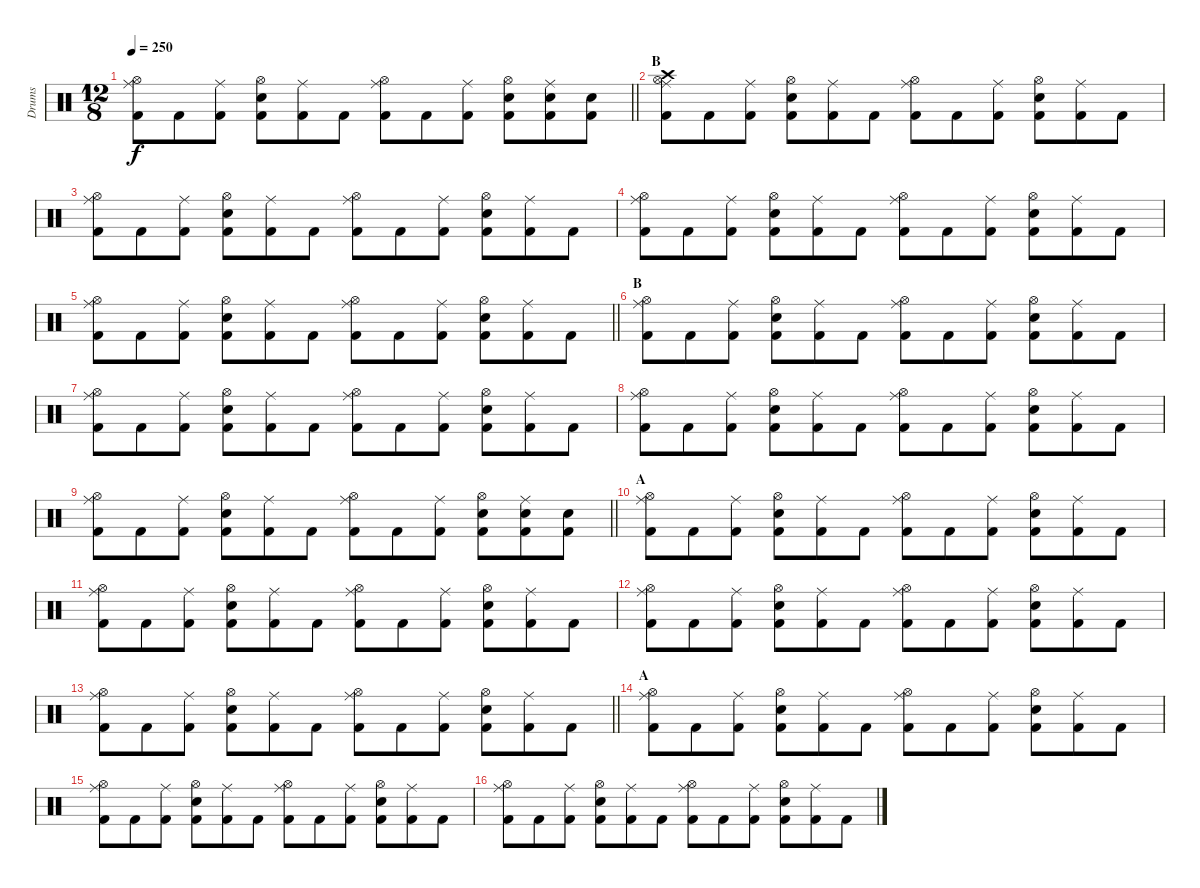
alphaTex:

\track ("Drums" "Drums") {instrument percussion}
\staff {score}
\articulation defaults
\ts (12 8)
\tempo 250
\clef neutral
\barLineRight lightlight
\ks c
("Ride (middle)" "Hi-Hat (open)" "Kick (hit) 2").8{dy f} "Kick (hit) 2".8 ("Ride (middle)" "Kick (hit) 2").8 ("Hi-Hat (open)" "Snare (hit) 2" "Kick (hit) 2").8 ("Ride (middle)" "Kick (hit) 2").8 "Kick (hit) 2".8 ("Ride (middle)" "Hi-Hat (open)" "Kick (hit) 2").8 "Kick (hit) 2".8 ("Ride (middle)" "Kick (hit) 2").8 ("Hi-Hat (open)" "Snare (hit) 2" "Kick (hit) 2").8 ("Ride (middle)" "Snare (hit) 2" "Kick (hit) 2").8 ("Snare (hit) 2" "Kick (hit) 2").8 |
\section ("" "B")
("Crash high (hit)" "Ride (middle)" "Hi-Hat (open)" "Kick (hit) 2").8 "Kick (hit) 2".8 ("Ride (middle)" "Kick (hit) 2").8 ("Hi-Hat (open)" "Snare (hit) 2" "Kick (hit) 2").8 ("Ride (middle)" "Kick (hit) 2").8 "Kick (hit) 2".8 ("Ride (middle)" "Hi-Hat (open)" "Kick (hit) 2").8 "Kick (hit) 2".8 ("Ride (middle)" "Kick (hit) 2").8 ("Hi-Hat (open)" "Snare (hit) 2" "Kick (hit) 2").8 ("Ride (middle)" "Kick (hit) 2").8 "Kick (hit) 2".8 |
("Ride (middle)" "Hi-Hat (open)" "Kick (hit) 2").8 "Kick (hit) 2".8 ("Ride (middle)" "Kick (hit) 2").8 ("Hi-Hat (open)" "Snare (hit) 2" "Kick (hit) 2").8 ("Ride (middle)" "Kick (hit) 2").8 "Kick (hit) 2".8 ("Ride (middle)" "Hi-Hat (open)" "Kick (hit) 2").8 "Kick (hit) 2".8 ("Ride (middle)" "Kick (hit) 2").8 ("Hi-Hat (open)" "Snare (hit) 2" "Kick (hit) 2").8 ("Ride (middle)" "Kick (hit) 2").8 "Kick (hit) 2".8 |
("Ride (middle)" "Hi-Hat (open)" "Kick (hit) 2").8 "Kick (hit) 2".8 ("Ride (middle)" "Kick (hit) 2").8 ("Hi-Hat (open)" "Snare (hit) 2" "Kick (hit) 2").8 ("Ride (middle)" "Kick (hit) 2").8 "Kick (hit) 2".8 ("Ride (middle)" "Hi-Hat (open)" "Kick (hit) 2").8 "Kick (hit) 2".8 ("Ride (middle)" "Kick (hit) 2").8 ("Hi-Hat (open)" "Snare (hit) 2" "Kick (hit) 2").8 ("Ride (middle)" "Kick (hit) 2").8 "Kick (hit) 2".8 |
\barLineRight lightlight
("Ride (middle)" "Hi-Hat (open)" "Kick (hit) 2").8 "Kick (hit) 2".8 ("Ride (middle)" "Kick (hit) 2").8 ("Hi-Hat (open)" "Snare (hit) 2" "Kick (hit) 2").8 ("Ride (middle)" "Kick (hit) 2").8 "Kick (hit) 2".8 ("Ride (middle)" "Hi-Hat (open)" "Kick (hit) 2").8 "Kick (hit) 2".8 ("Ride (middle)" "Kick (hit) 2").8 ("Hi-Hat (open)" "Snare (hit) 2" "Kick (hit) 2").8 ("Ride (middle)" "Kick (hit) 2").8 "Kick (hit) 2".8 |
\section ("" "B")
("Ride (middle)" "Hi-Hat (open)" "Kick (hit) 2").8 "Kick (hit) 2".8 ("Ride (middle)" "Kick (hit) 2").8 ("Hi-Hat (open)" "Snare (hit) 2" "Kick (hit) 2").8 ("Ride (middle)" "Kick (hit) 2").8 "Kick (hit) 2".8 ("Ride (middle)" "Hi-Hat (open)" "Kick (hit) 2").8 "Kick (hit) 2".8 ("Ride (middle)" "Kick (hit) 2").8 ("Hi-Hat (open)" "Snare (hit) 2" "Kick (hit) 2").8 ("Ride (middle)" "Kick (hit) 2").8 "Kick (hit) 2".8 |
("Ride (middle)" "Hi-Hat (open)" "Kick (hit) 2").8 "Kick (hit) 2".8 ("Ride (middle)" "Kick (hit) 2").8 ("Hi-Hat (open)" "Snare (hit) 2" "Kick (hit) 2").8 ("Ride (middle)" "Kick (hit) 2").8 "Kick (hit) 2".8 ("Ride (middle)" "Hi-Hat (open)" "Kick (hit) 2").8 "Kick (hit) 2".8 ("Ride (middle)" "Kick (hit) 2").8 ("Hi-Hat (open)" "Snare (hit) 2" "Kick (hit) 2").8 ("Ride (middle)" "Kick (hit) 2").8 "Kick (hit) 2".8 |
("Ride (middle)" "Hi-Hat (open)" "Kick (hit) 2").8 "Kick (hit) 2".8 ("Ride (middle)" "Kick (hit) 2").8 ("Hi-Hat (open)" "Snare (hit) 2" "Kick (hit) 2").8 ("Ride (middle)" "Kick (hit) 2").8 "Kick (hit) 2".8 ("Ride (middle)" "Hi-Hat (open)" "Kick (hit) 2").8 "Kick (hit) 2".8 ("Ride (middle)" "Kick (hit) 2").8 ("Hi-Hat (open)" "Snare (hit) 2" "Kick (hit) 2").8 ("Ride (middle)" "Kick (hit) 2").8 "Kick (hit) 2".8 |
\barLineRight lightlight
("Ride (middle)" "Hi-Hat (open)" "Kick (hit) 2").8 "Kick (hit) 2".8 ("Ride (middle)" "Kick (hit) 2").8 ("Hi-Hat (open)" "Snare (hit) 2" "Kick (hit) 2").8 ("Ride (middle)" "Kick (hit) 2").8 "Kick (hit) 2".8 ("Ride (middle)" "Hi-Hat (open)" "Kick (hit) 2").8 "Kick (hit) 2".8 ("Ride (middle)" "Kick (hit) 2").8 ("Hi-Hat (open)" "Snare (hit) 2" "Kick (hit) 2").8 ("Ride (middle)" "Snare (hit) 2" "Kick (hit) 2").8 ("Snare (hit) 2" "Kick (hit) 2").8 |
\section ("" "A")
("Ride (middle)" "Hi-Hat (open)" "Kick (hit) 2").8 "Kick (hit) 2".8 ("Ride (middle)" "Kick (hit) 2").8 ("Hi-Hat (open)" "Snare (hit) 2" "Kick (hit) 2").8 ("Ride (middle)" "Kick (hit) 2").8 "Kick (hit) 2".8 ("Ride (middle)" "Hi-Hat (open)" "Kick (hit) 2").8 "Kick (hit) 2".8 ("Ride (middle)" "Kick (hit) 2").8 ("Hi-Hat (open)" "Snare (hit) 2" "Kick (hit) 2").8 ("Ride (middle)" "Kick (hit) 2").8 "Kick (hit) 2".8 |
("Ride (middle)" "Hi-Hat (open)" "Kick (hit) 2").8 "Kick (hit) 2".8 ("Ride (middle)" "Kick (hit) 2").8 ("Hi-Hat (open)" "Snare (hit) 2" "Kick (hit) 2").8 ("Ride (middle)" "Kick (hit) 2").8 "Kick (hit) 2".8 ("Ride (middle)" "Hi-Hat (open)" "Kick (hit) 2").8 "Kick (hit) 2".8 ("Ride (middle)" "Kick (hit) 2").8 ("Hi-Hat (open)" "Snare (hit) 2" "Kick (hit) 2").8 ("Ride (middle)" "Kick (hit) 2").8 "Kick (hit) 2".8 |
("Ride (middle)" "Hi-Hat (open)" "Kick (hit) 2").8 "Kick (hit) 2".8 ("Ride (middle)" "Kick (hit) 2").8 ("Hi-Hat (open)" "Snare (hit) 2" "Kick (hit) 2").8 ("Ride (middle)" "Kick (hit) 2").8 "Kick (hit) 2".8 ("Ride (middle)" "Hi-Hat (open)" "Kick (hit) 2").8 "Kick (hit) 2".8 ("Ride (middle)" "Kick (hit) 2").8 ("Hi-Hat (open)" "Snare (hit) 2" "Kick (hit) 2").8 ("Ride (middle)" "Kick (hit) 2").8 "Kick (hit) 2".8 |
\barLineRight lightlight
("Ride (middle)" "Hi-Hat (open)" "Kick (hit) 2").8 "Kick (hit) 2".8 ("Ride (middle)" "Kick (hit) 2").8 ("Hi-Hat (open)" "Snare (hit) 2" "Kick (hit) 2").8 ("Ride (middle)" "Kick (hit) 2").8 "Kick (hit) 2".8 ("Ride (middle)" "Hi-Hat (open)" "Kick (hit) 2").8 "Kick (hit) 2".8 ("Ride (middle)" "Kick (hit) 2").8 ("Hi-Hat (open)" "Snare (hit) 2" "Kick (hit) 2").8 ("Ride (middle)" "Kick (hit) 2").8 "Kick (hit) 2".8 |
\section ("" "A")
("Ride (middle)" "Hi-Hat (open)" "Kick (hit) 2").8 "Kick (hit) 2".8 ("Ride (middle)" "Kick (hit) 2").8 ("Hi-Hat (open)" "Snare (hit) 2" "Kick (hit) 2").8 ("Ride (middle)" "Kick (hit) 2").8 "Kick (hit) 2".8 ("Ride (middle)" "Hi-Hat (open)" "Kick (hit) 2").8 "Kick (hit) 2".8 ("Ride (middle)" "Kick (hit) 2").8 ("Hi-Hat (open)" "Snare (hit) 2" "Kick (hit) 2").8 ("Ride (middle)" "Kick (hit) 2").8 "Kick (hit) 2".8 |
("Ride (middle)" "Hi-Hat (open)" "Kick (hit) 2").8 "Kick (hit) 2".8 ("Ride (middle)" "Kick (hit) 2").8 ("Hi-Hat (open)" "Snare (hit) 2" "Kick (hit) 2").8 ("Ride (middle)" "Kick (hit) 2").8 "Kick (hit) 2".8 ("Ride (middle)" "Hi-Hat (open)" "Kick (hit) 2").8 "Kick (hit) 2".8 ("Ride (middle)" "Kick (hit) 2").8 ("Hi-Hat (open)" "Snare (hit) 2" "Kick (hit) 2").8 ("Ride (middle)" "Kick (hit) 2").8 "Kick (hit) 2".8 |
("Ride (middle)" "Hi-Hat (open)" "Kick (hit) 2").8 "Kick (hit) 2".8 ("Ride (middle)" "Kick (hit) 2").8 ("Hi-Hat (open)" "Snare (hit) 2" "Kick (hit) 2").8 ("Ride (middle)" "Kick (hit) 2").8 "Kick (hit) 2".8 ("Ride (middle)" "Hi-Hat (open)" "Kick (hit) 2").8 "Kick (hit) 2".8 ("Ride (middle)" "Kick (hit) 2").8 ("Hi-Hat (open)" "Snare (hit) 2" "Kick (hit) 2").8 ("Ride (middle)" "Kick (hit) 2").8 "Kick (hit) 2".8
